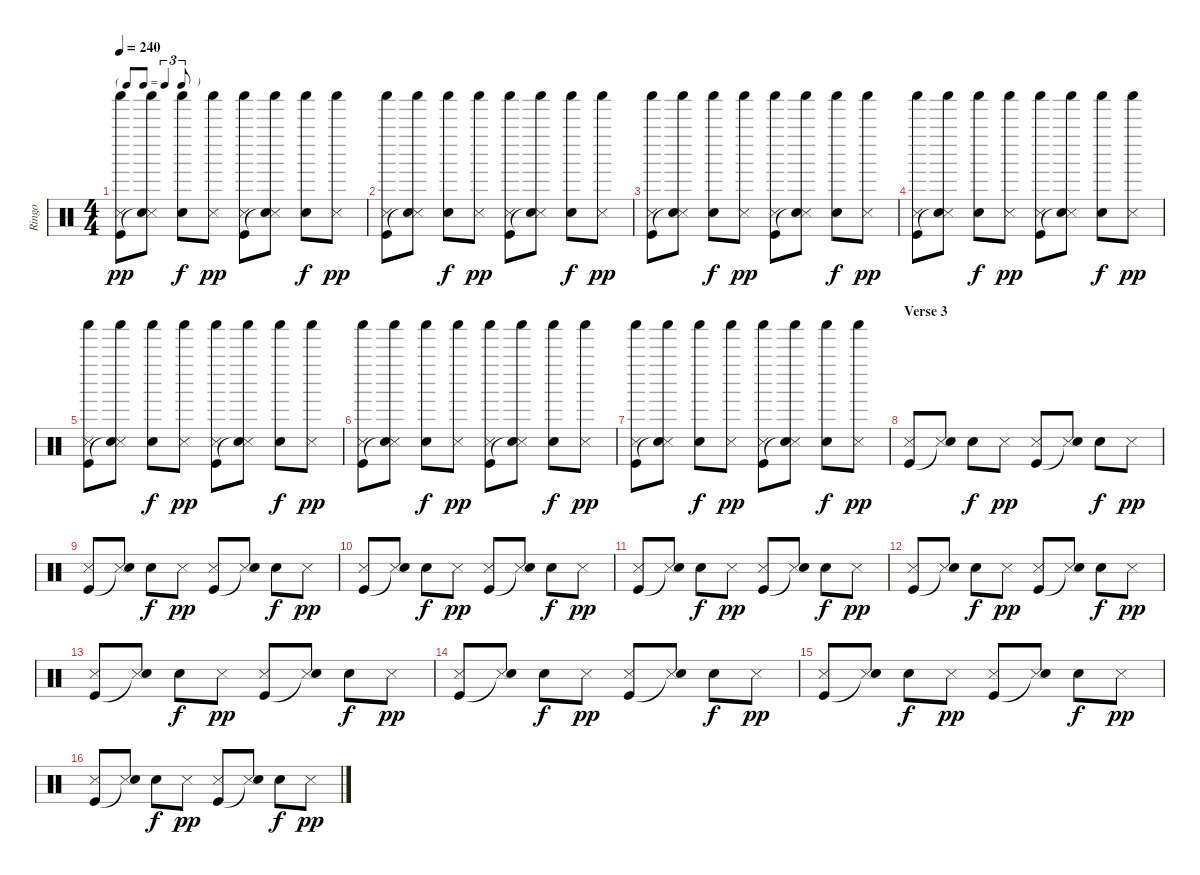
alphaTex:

\track ("Ringo" "Ringo") {instrument percussion}
\staff {score}
\articulation defaults
\ts (4 4)
\tf triplet8th
\tempo 240
\clef neutral
\ks c
("Shaker (hit)" "Snare (side stick) 3" "Kick (hit)").8{dy pp} ("Shaker (hit)" "Snare (side stick) 3" "Snare (hit)"{t}).8 ("Shaker (hit)" "Snare (hit) 2").8{dy f} ("Shaker (hit)" "Snare (side stick) 3").8{dy pp} ("Shaker (hit)" "Snare (side stick) 3" "Kick (hit)").8 ("Shaker (hit)" "Snare (side stick) 3" "Snare (hit)"{t}).8 ("Shaker (hit)" "Snare (hit) 2").8{dy f} ("Shaker (hit)" "Snare (side stick) 3").8{dy pp} |
("Shaker (hit)" "Snare (side stick) 3" "Kick (hit)").8 ("Shaker (hit)" "Snare (side stick) 3" "Snare (hit)"{t}).8 ("Shaker (hit)" "Snare (hit) 2").8{dy f} ("Shaker (hit)" "Snare (side stick) 3").8{dy pp} ("Shaker (hit)" "Snare (side stick) 3" "Kick (hit)").8 ("Shaker (hit)" "Snare (side stick) 3" "Snare (hit)"{t}).8 ("Shaker (hit)" "Snare (hit) 2").8{dy f} ("Shaker (hit)" "Snare (side stick) 3").8{dy pp} |
("Shaker (hit)" "Snare (side stick) 3" "Kick (hit)").8 ("Shaker (hit)" "Snare (side stick) 3" "Snare (hit)"{t}).8 ("Shaker (hit)" "Snare (hit) 2").8{dy f} ("Shaker (hit)" "Snare (side stick) 3").8{dy pp} ("Shaker (hit)" "Snare (side stick) 3" "Kick (hit)").8 ("Shaker (hit)" "Snare (side stick) 3" "Snare (hit)"{t}).8 ("Shaker (hit)" "Snare (hit) 2").8{dy f} ("Shaker (hit)" "Snare (side stick) 3").8{dy pp} |
("Shaker (hit)" "Snare (side stick) 3" "Kick (hit)").8 ("Shaker (hit)" "Snare (side stick) 3" "Snare (hit)"{t}).8 ("Shaker (hit)" "Snare (hit) 2").8{dy f} ("Shaker (hit)" "Snare (side stick) 3").8{dy pp} ("Shaker (hit)" "Snare (side stick) 3" "Kick (hit)").8 ("Shaker (hit)" "Snare (side stick) 3" "Snare (hit)"{t}).8 ("Shaker (hit)" "Snare (hit) 2").8{dy f} ("Shaker (hit)" "Snare (side stick) 3").8{dy pp} |
("Shaker (hit)" "Snare (side stick) 3" "Kick (hit)").8 ("Shaker (hit)" "Snare (side stick) 3" "Snare (hit)"{t}).8 ("Shaker (hit)" "Snare (hit) 2").8{dy f} ("Shaker (hit)" "Snare (side stick) 3").8{dy pp} ("Shaker (hit)" "Snare (side stick) 3" "Kick (hit)").8 ("Shaker (hit)" "Snare (side stick) 3" "Snare (hit)"{t}).8 ("Shaker (hit)" "Snare (hit) 2").8{dy f} ("Shaker (hit)" "Snare (side stick) 3").8{dy pp} |
("Shaker (hit)" "Snare (side stick) 3" "Kick (hit)").8 ("Shaker (hit)" "Snare (side stick) 3" "Snare (hit)"{t}).8 ("Shaker (hit)" "Snare (hit) 2").8{dy f} ("Shaker (hit)" "Snare (side stick) 3").8{dy pp} ("Shaker (hit)" "Snare (side stick) 3" "Kick (hit)").8 ("Shaker (hit)" "Snare (side stick) 3" "Snare (hit)"{t}).8 ("Shaker (hit)" "Snare (hit) 2").8{dy f} ("Shaker (hit)" "Snare (side stick) 3").8{dy pp} |
("Shaker (hit)" "Snare (side stick) 3" "Kick (hit)").8 ("Shaker (hit)" "Snare (side stick) 3" "Snare (hit)"{t}).8 ("Shaker (hit)" "Snare (hit) 2").8{dy f} ("Shaker (hit)" "Snare (side stick) 3").8{dy pp} ("Shaker (hit)" "Snare (side stick) 3" "Kick (hit)").8 ("Shaker (hit)" "Snare (side stick) 3" "Snare (hit)"{t}).8 ("Shaker (hit)" "Snare (hit) 2").8{dy f} ("Shaker (hit)" "Snare (side stick) 3").8{dy pp} |
\section ("" "Verse 3")
("Snare (side stick) 3" "Kick (hit)").8 ("Snare (side stick) 3" "Snare (hit)"{t}).8 "Snare (hit) 2".8{dy f} "Snare (side stick) 3".8{dy pp} ("Snare (side stick) 3" "Kick (hit)").8 ("Snare (side stick) 3" "Snare (hit)"{t}).8 "Snare (hit) 2".8{dy f} "Snare (side stick) 3".8{dy pp} |
("Snare (side stick) 3" "Kick (hit)").8 ("Snare (side stick) 3" "Snare (hit)"{t}).8 "Snare (hit) 2".8{dy f} "Snare (side stick) 3".8{dy pp} ("Snare (side stick) 3" "Kick (hit)").8 ("Snare (side stick) 3" "Snare (hit)"{t}).8 "Snare (hit) 2".8{dy f} "Snare (side stick) 3".8{dy pp} |
("Snare (side stick) 3" "Kick (hit)").8 ("Snare (side stick) 3" "Snare (hit)"{t}).8 "Snare (hit) 2".8{dy f} "Snare (side stick) 3".8{dy pp} ("Snare (side stick) 3" "Kick (hit)").8 ("Snare (side stick) 3" "Snare (hit)"{t}).8 "Snare (hit) 2".8{dy f} "Snare (side stick) 3".8{dy pp} |
("Snare (side stick) 3" "Kick (hit)").8 ("Snare (side stick) 3" "Snare (hit)"{t}).8 "Snare (hit) 2".8{dy f} "Snare (side stick) 3".8{dy pp} ("Snare (side stick) 3" "Kick (hit)").8 ("Snare (side stick) 3" "Snare (hit)"{t}).8 "Snare (hit) 2".8{dy f} "Snare (side stick) 3".8{dy pp} |
("Snare (side stick) 3" "Kick (hit)").8 ("Snare (side stick) 3" "Snare (hit)"{t}).8 "Snare (hit) 2".8{dy f} "Snare (side stick) 3".8{dy pp} ("Snare (side stick) 3" "Kick (hit)").8 ("Snare (side stick) 3" "Snare (hit)"{t}).8 "Snare (hit) 2".8{dy f} "Snare (side stick) 3".8{dy pp} |
("Snare (side stick) 3" "Kick (hit)").8 ("Snare (side stick) 3" "Snare (hit)"{t}).8 "Snare (hit) 2".8{dy f} "Snare (side stick) 3".8{dy pp} ("Snare (side stick) 3" "Kick (hit)").8 ("Snare (side stick) 3" "Snare (hit)"{t}).8 "Snare (hit) 2".8{dy f} "Snare (side stick) 3".8{dy pp} |
("Snare (side stick) 3" "Kick (hit)").8 ("Snare (side stick) 3" "Snare (hit)"{t}).8 "Snare (hit) 2".8{dy f} "Snare (side stick) 3".8{dy pp} ("Snare (side stick) 3" "Kick (hit)").8 ("Snare (side stick) 3" "Snare (hit)"{t}).8 "Snare (hit) 2".8{dy f} "Snare (side stick) 3".8{dy pp} |
("Snare (side stick) 3" "Kick (hit)").8 ("Snare (side stick) 3" "Snare (hit)"{t}).8 "Snare (hit) 2".8{dy f} "Snare (side stick) 3".8{dy pp} ("Snare (side stick) 3" "Kick (hit)").8 ("Snare (side stick) 3" "Snare (hit)"{t}).8 "Snare (hit) 2".8{dy f} "Snare (side stick) 3".8{dy pp} |
("Snare (side stick) 3" "Kick (hit)").8 ("Snare (side stick) 3" "Snare (hit)"{t}).8 "Snare (hit) 2".8{dy f} "Snare (side stick) 3".8{dy pp} ("Snare (side stick) 3" "Kick (hit)").8 ("Snare (side stick) 3" "Snare (hit)"{t}).8 "Snare (hit) 2".8{dy f} "Snare (side stick) 3".8{dy pp}
